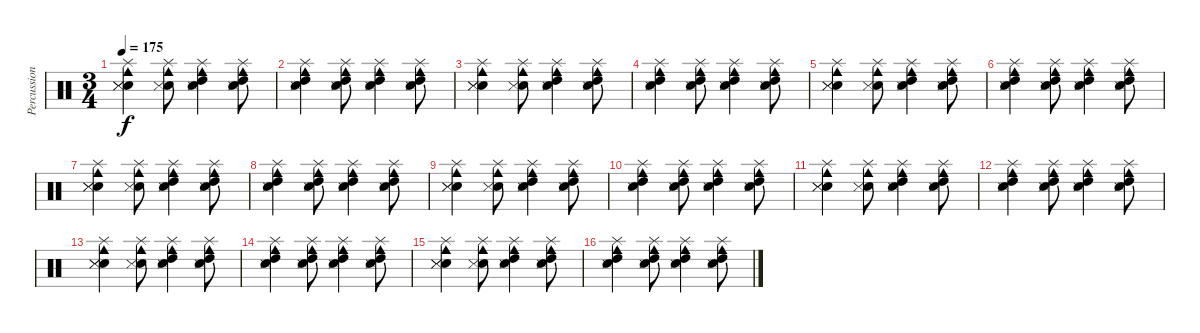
\track ("Percussion" "Percussion") {instrument percussion}
\staff {score}
\articulation defaults
\ts (3 4)
\tempo 175
\clef neutral
\ks c
("Snare (hit) 2" "Snare (side stick) 3" "Snare (side stick) 3" "Splash (hit)" "Cowbell medium (hit)").4{dy f} ("Snare (hit) 2" "Snare (side stick) 3" "Splash (hit)" "Cowbell medium (hit)").8 ("Snare (hit) 2" "Snare (side stick) 3" "High Tom (hit)" "Splash (hit)" "Cowbell medium (hit)").4 ("Snare (hit) 2" "Snare (side stick) 3" "High Tom (hit)" "Splash (hit)" "Cowbell medium (hit)").8 |
("Snare (hit) 2" "Snare (side stick) 3" "High Tom (hit)" "Splash (hit)" "Cowbell medium (hit)").4 ("Snare (hit) 2" "Snare (side stick) 3" "High Tom (hit)" "Splash (hit)" "Cowbell medium (hit)").8 ("Snare (hit) 2" "Snare (side stick) 3" "High Tom (hit)" "Splash (hit)" "Cowbell medium (hit)").4 ("Snare (hit) 2" "Snare (side stick) 3" "High Tom (hit)" "Splash (hit)" "Cowbell medium (hit)").8 |
("Snare (hit) 2" "Snare (side stick) 3" "Snare (side stick) 3" "Splash (hit)" "Cowbell medium (hit)").4 ("Snare (hit) 2" "Snare (side stick) 3" "Splash (hit)" "Cowbell medium (hit)").8 ("Snare (hit) 2" "Snare (side stick) 3" "High Tom (hit)" "Splash (hit)" "Cowbell medium (hit)").4 ("Snare (hit) 2" "Snare (side stick) 3" "High Tom (hit)" "Splash (hit)" "Cowbell medium (hit)").8 |
("Snare (hit) 2" "Snare (side stick) 3" "High Tom (hit)" "Splash (hit)" "Cowbell medium (hit)").4 ("Snare (hit) 2" "Snare (side stick) 3" "High Tom (hit)" "Splash (hit)" "Cowbell medium (hit)").8 ("Snare (hit) 2" "Snare (side stick) 3" "High Tom (hit)" "Splash (hit)" "Cowbell medium (hit)").4 ("Snare (hit) 2" "Snare (side stick) 3" "High Tom (hit)" "Splash (hit)" "Cowbell medium (hit)").8 |
("Snare (hit) 2" "Snare (side stick) 3" "Snare (side stick) 3" "Splash (hit)" "Cowbell medium (hit)").4 ("Snare (hit) 2" "Snare (side stick) 3" "Splash (hit)" "Cowbell medium (hit)").8 ("Snare (hit) 2" "Snare (side stick) 3" "High Tom (hit)" "Splash (hit)" "Cowbell medium (hit)").4 ("Snare (hit) 2" "Snare (side stick) 3" "High Tom (hit)" "Splash (hit)" "Cowbell medium (hit)").8 |
("Snare (hit) 2" "Snare (side stick) 3" "High Tom (hit)" "Splash (hit)" "Cowbell medium (hit)").4 ("Snare (hit) 2" "Snare (side stick) 3" "High Tom (hit)" "Splash (hit)" "Cowbell medium (hit)").8 ("Snare (hit) 2" "Snare (side stick) 3" "High Tom (hit)" "Splash (hit)" "Cowbell medium (hit)").4 ("Snare (hit) 2" "Snare (side stick) 3" "High Tom (hit)" "Splash (hit)" "Cowbell medium (hit)").8 |
("Snare (hit) 2" "Snare (side stick) 3" "Snare (side stick) 3" "Splash (hit)" "Cowbell medium (hit)").4 ("Snare (hit) 2" "Snare (side stick) 3" "Splash (hit)" "Cowbell medium (hit)").8 ("Snare (hit) 2" "Snare (side stick) 3" "High Tom (hit)" "Splash (hit)" "Cowbell medium (hit)").4 ("Snare (hit) 2" "Snare (side stick) 3" "High Tom (hit)" "Splash (hit)" "Cowbell medium (hit)").8 |
("Snare (hit) 2" "Snare (side stick) 3" "High Tom (hit)" "Splash (hit)" "Cowbell medium (hit)").4 ("Snare (hit) 2" "Snare (side stick) 3" "High Tom (hit)" "Splash (hit)" "Cowbell medium (hit)").8 ("Snare (hit) 2" "Snare (side stick) 3" "High Tom (hit)" "Splash (hit)" "Cowbell medium (hit)").4 ("Snare (hit) 2" "Snare (side stick) 3" "High Tom (hit)" "Splash (hit)" "Cowbell medium (hit)").8 |
("Snare (hit) 2" "Snare (side stick) 3" "Snare (side stick) 3" "Splash (hit)" "Cowbell medium (hit)").4 ("Snare (hit) 2" "Snare (side stick) 3" "Splash (hit)" "Cowbell medium (hit)").8 ("Snare (hit) 2" "Snare (side stick) 3" "High Tom (hit)" "Splash (hit)" "Cowbell medium (hit)").4 ("Snare (hit) 2" "Snare (side stick) 3" "High Tom (hit)" "Splash (hit)" "Cowbell medium (hit)").8 |
("Snare (hit) 2" "Snare (side stick) 3" "High Tom (hit)" "Splash (hit)" "Cowbell medium (hit)").4 ("Snare (hit) 2" "Snare (side stick) 3" "High Tom (hit)" "Splash (hit)" "Cowbell medium (hit)").8 ("Snare (hit) 2" "Snare (side stick) 3" "High Tom (hit)" "Splash (hit)" "Cowbell medium (hit)").4 ("Snare (hit) 2" "Snare (side stick) 3" "High Tom (hit)" "Splash (hit)" "Cowbell medium (hit)").8 |
("Snare (hit) 2" "Snare (side stick) 3" "Snare (side stick) 3" "Splash (hit)" "Cowbell medium (hit)").4 ("Snare (hit) 2" "Snare (side stick) 3" "Splash (hit)" "Cowbell medium (hit)").8 ("Snare (hit) 2" "Snare (side stick) 3" "High Tom (hit)" "Splash (hit)" "Cowbell medium (hit)").4 ("Snare (hit) 2" "Snare (side stick) 3" "High Tom (hit)" "Splash (hit)" "Cowbell medium (hit)").8 |
("Snare (hit) 2" "Snare (side stick) 3" "High Tom (hit)" "Splash (hit)" "Cowbell medium (hit)").4 ("Snare (hit) 2" "Snare (side stick) 3" "High Tom (hit)" "Splash (hit)" "Cowbell medium (hit)").8 ("Snare (hit) 2" "Snare (side stick) 3" "High Tom (hit)" "Splash (hit)" "Cowbell medium (hit)").4 ("Snare (hit) 2" "Snare (side stick) 3" "High Tom (hit)" "Splash (hit)" "Cowbell medium (hit)").8 |
("Snare (hit) 2" "Snare (side stick) 3" "Snare (side stick) 3" "Splash (hit)" "Cowbell medium (hit)").4 ("Snare (hit) 2" "Snare (side stick) 3" "Splash (hit)" "Cowbell medium (hit)").8 ("Snare (hit) 2" "Snare (side stick) 3" "High Tom (hit)" "Splash (hit)" "Cowbell medium (hit)").4 ("Snare (hit) 2" "Snare (side stick) 3" "High Tom (hit)" "Splash (hit)" "Cowbell medium (hit)").8 |
("Snare (hit) 2" "Snare (side stick) 3" "High Tom (hit)" "Splash (hit)" "Cowbell medium (hit)").4 ("Snare (hit) 2" "Snare (side stick) 3" "High Tom (hit)" "Splash (hit)" "Cowbell medium (hit)").8 ("Snare (hit) 2" "Snare (side stick) 3" "High Tom (hit)" "Splash (hit)" "Cowbell medium (hit)").4 ("Snare (hit) 2" "Snare (side stick) 3" "High Tom (hit)" "Splash (hit)" "Cowbell medium (hit)").8 |
("Snare (hit) 2" "Snare (side stick) 3" "Snare (side stick) 3" "Splash (hit)" "Cowbell medium (hit)").4 ("Snare (hit) 2" "Snare (side stick) 3" "Splash (hit)" "Cowbell medium (hit)").8 ("Snare (hit) 2" "Snare (side stick) 3" "High Tom (hit)" "Splash (hit)" "Cowbell medium (hit)").4 ("Snare (hit) 2" "Snare (side stick) 3" "High Tom (hit)" "Splash (hit)" "Cowbell medium (hit)").8 |
("Snare (hit) 2" "Snare (side stick) 3" "High Tom (hit)" "Splash (hit)" "Cowbell medium (hit)").4 ("Snare (hit) 2" "Snare (side stick) 3" "High Tom (hit)" "Splash (hit)" "Cowbell medium (hit)").8 ("Snare (hit) 2" "Snare (side stick) 3" "High Tom (hit)" "Splash (hit)" "Cowbell medium (hit)").4 ("Snare (hit) 2" "Snare (side stick) 3" "High Tom (hit)" "Splash (hit)" "Cowbell medium (hit)").8
